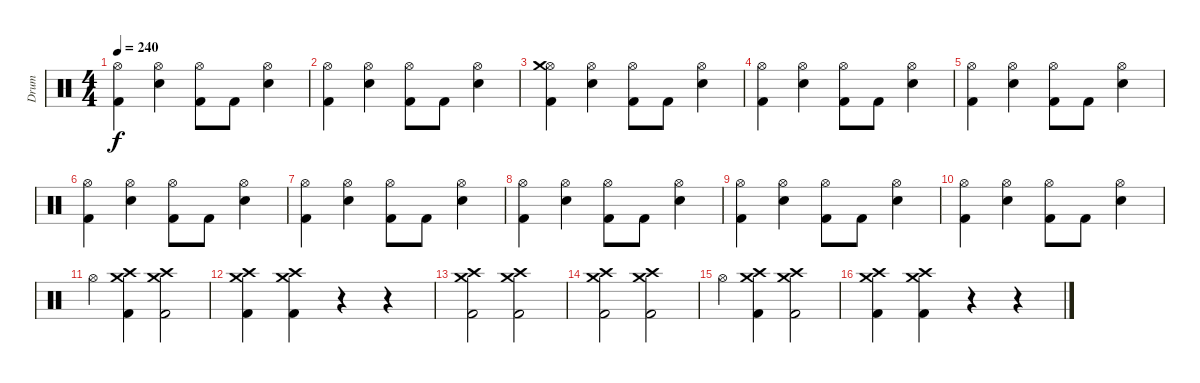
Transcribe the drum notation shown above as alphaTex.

\track ("Drum" "Drum") {instrument percussion}
\staff {score}
\articulation defaults
\ts (4 4)
\tempo 240
\clef neutral
\ks c
("Hi-Hat (open)" "Kick (hit) 2").4{dy f} ("Hi-Hat (open)" "Electric Snare (hit)").4 ("Hi-Hat (open)" "Kick (hit) 2").8 "Kick (hit) 2".8 ("Hi-Hat (open)" "Electric Snare (hit)").4 |
("Hi-Hat (open)" "Kick (hit) 2").4 ("Hi-Hat (open)" "Electric Snare (hit)").4 ("Hi-Hat (open)" "Kick (hit) 2").8 "Kick (hit) 2".8 ("Hi-Hat (open)" "Electric Snare (hit)").4 |
("Hi-Hat (open)" "Kick (hit) 2" "Crash medium (hit)").4 ("Hi-Hat (open)" "Electric Snare (hit)").4 ("Hi-Hat (open)" "Kick (hit) 2").8 "Kick (hit) 2".8 ("Hi-Hat (open)" "Electric Snare (hit)").4 |
("Hi-Hat (open)" "Kick (hit) 2").4 ("Hi-Hat (open)" "Electric Snare (hit)").4 ("Hi-Hat (open)" "Kick (hit) 2").8 "Kick (hit) 2".8 ("Hi-Hat (open)" "Electric Snare (hit)").4 |
("Hi-Hat (open)" "Kick (hit) 2").4 ("Hi-Hat (open)" "Electric Snare (hit)").4 ("Hi-Hat (open)" "Kick (hit) 2").8 "Kick (hit) 2".8 ("Hi-Hat (open)" "Electric Snare (hit)").4 |
("Hi-Hat (open)" "Kick (hit) 2").4 ("Hi-Hat (open)" "Electric Snare (hit)").4 ("Hi-Hat (open)" "Kick (hit) 2").8 "Kick (hit) 2".8 ("Hi-Hat (open)" "Electric Snare (hit)").4 |
("Hi-Hat (open)" "Kick (hit) 2").4 ("Hi-Hat (open)" "Electric Snare (hit)").4 ("Hi-Hat (open)" "Kick (hit) 2").8 "Kick (hit) 2".8 ("Hi-Hat (open)" "Electric Snare (hit)").4 |
("Hi-Hat (open)" "Kick (hit) 2").4 ("Hi-Hat (open)" "Electric Snare (hit)").4 ("Hi-Hat (open)" "Kick (hit) 2").8 "Kick (hit) 2".8 ("Hi-Hat (open)" "Electric Snare (hit)").4 |
("Hi-Hat (open)" "Kick (hit) 2").4 ("Hi-Hat (open)" "Electric Snare (hit)").4 ("Hi-Hat (open)" "Kick (hit) 2").8 "Kick (hit) 2".8 ("Hi-Hat (open)" "Electric Snare (hit)").4 |
("Hi-Hat (open)" "Kick (hit) 2").4 ("Hi-Hat (open)" "Electric Snare (hit)").4 ("Hi-Hat (open)" "Kick (hit) 2").8 "Kick (hit) 2".8 ("Hi-Hat (open)" "Electric Snare (hit)").4 |
"Hi-Hat (open)".4 ("Crash high (hit)" "Kick (hit) 2" "Crash medium (hit)").4 ("Crash high (hit)" "Kick (hit) 2" "Crash medium (hit)").2 |
("Crash high (hit)" "Kick (hit) 2" "Crash medium (hit)").4 ("Crash high (hit)" "Kick (hit) 2" "Crash medium (hit)").4 r.4 r.4 |
("Crash high (hit)" "Kick (hit) 2" "Crash medium (hit)").2 ("Crash high (hit)" "Kick (hit) 2" "Crash medium (hit)").2 |
("Crash high (hit)" "Kick (hit) 2" "Crash medium (hit)").2 ("Crash high (hit)" "Kick (hit) 2" "Crash medium (hit)").2 |
"Hi-Hat (open)".4 ("Crash high (hit)" "Kick (hit) 2" "Crash medium (hit)").4 ("Crash high (hit)" "Kick (hit) 2" "Crash medium (hit)").2 |
("Crash high (hit)" "Kick (hit) 2" "Crash medium (hit)").4 ("Crash high (hit)" "Kick (hit) 2" "Crash medium (hit)").4 r.4 r.4
